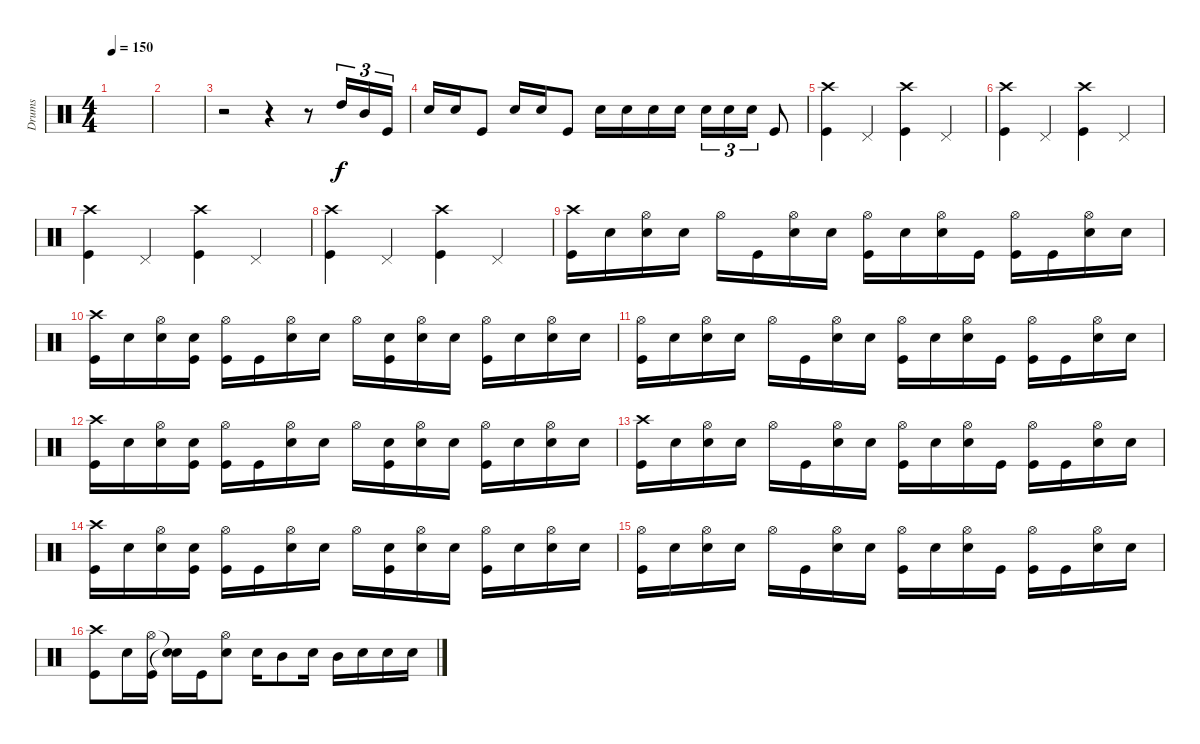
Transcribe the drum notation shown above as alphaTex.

\track ("Drums" "Drums") {instrument percussion}
\staff {score}
\articulation defaults
\ts (4 4)
\tempo 150
\clef neutral
\ks c
|
|
r.2 r.4 r.8 "High Tom (hit)".16{tu (3 2)} "Mid Tom (hit)".16{tu (3 2)} "Kick (hit)".16{tu (3 2)} |
"Snare (hit) 2".16 "Snare (hit) 2".16 "Kick (hit)".8 "Snare (hit) 2".16 "Snare (hit) 2".16 "Kick (hit)".8 "Snare (hit) 2".16 "Snare (hit) 2".16 "Snare (hit) 2".16 "Snare (hit) 2".16 "Snare (hit) 2".16{tu (3 2)} "Snare (hit) 2".16{tu (3 2)} "Snare (hit) 2".16{tu (3 2)} "Kick (hit)".8 |
("Crash high (hit)" "Kick (hit)").4 "Pedal Hi-Hat (hit)".4 ("Crash high (hit)" "Kick (hit)").4 "Pedal Hi-Hat (hit)".4 |
("Crash high (hit)" "Kick (hit)").4 "Pedal Hi-Hat (hit)".4 ("Crash high (hit)" "Kick (hit)").4 "Pedal Hi-Hat (hit)".4 |
("Crash high (hit)" "Kick (hit)").4 "Pedal Hi-Hat (hit)".4 ("Crash high (hit)" "Kick (hit)").4 "Pedal Hi-Hat (hit)".4 |
("Crash high (hit)" "Kick (hit)").4 "Pedal Hi-Hat (hit)".4 ("Crash high (hit)" "Kick (hit)").4 "Pedal Hi-Hat (hit)".4 |
("Crash high (hit)" "Kick (hit)").16 "Snare (hit)".16 ("Hi-Hat (open)" "Snare (hit) 2").16 "Snare (hit)".16 "Hi-Hat (open)".16 "Kick (hit)".16 ("Hi-Hat (open)" "Snare (hit) 2").16 "Snare (hit)".16 ("Hi-Hat (open)" "Kick (hit)").16 "Snare (hit)".16 ("Hi-Hat (open)" "Snare (hit) 2").16 "Kick (hit)".16 ("Hi-Hat (open)" "Kick (hit)").16 "Kick (hit)".16 ("Hi-Hat (open)" "Snare (hit) 2").16 "Snare (hit)".16 |
("Crash high (hit)" "Kick (hit)").16 "Snare (hit)".16 ("Hi-Hat (open)" "Snare (hit) 2").16 ("Snare (hit)" "Kick (hit)").16 ("Hi-Hat (open)" "Kick (hit)").16 "Kick (hit)".16 ("Hi-Hat (open)" "Snare (hit) 2").16 "Snare (hit)".16 "Hi-Hat (open)".16 ("Snare (hit)" "Kick (hit)").16 ("Hi-Hat (open)" "Snare (hit) 2").16 "Snare (hit)".16 ("Hi-Hat (open)" "Kick (hit)").16 "Snare (hit)".16 ("Hi-Hat (open)" "Snare (hit) 2").16 "Snare (hit)".16 |
("Hi-Hat (open)" "Kick (hit)").16 "Snare (hit)".16 ("Hi-Hat (open)" "Snare (hit) 2").16 "Snare (hit)".16 "Hi-Hat (open)".16 "Kick (hit)".16 ("Hi-Hat (open)" "Snare (hit) 2").16 "Snare (hit)".16 ("Hi-Hat (open)" "Kick (hit)").16 "Snare (hit)".16 ("Hi-Hat (open)" "Snare (hit) 2").16 "Kick (hit)".16 ("Hi-Hat (open)" "Kick (hit)").16 "Kick (hit)".16 ("Hi-Hat (open)" "Snare (hit) 2").16 "Snare (hit)".16 |
("Crash high (hit)" "Kick (hit)").16 "Snare (hit)".16 ("Hi-Hat (open)" "Snare (hit) 2").16 ("Snare (hit)" "Kick (hit)").16 ("Hi-Hat (open)" "Kick (hit)").16 "Kick (hit)".16 ("Hi-Hat (open)" "Snare (hit) 2").16 "Snare (hit)".16 "Hi-Hat (open)".16 ("Snare (hit)" "Kick (hit)").16 ("Hi-Hat (open)" "Snare (hit) 2").16 "Snare (hit)".16 ("Hi-Hat (open)" "Kick (hit)").16 "Snare (hit)".16 ("Hi-Hat (open)" "Snare (hit) 2").16 "Snare (hit)".16 |
("Crash high (hit)" "Kick (hit)").16 "Snare (hit)".16 ("Hi-Hat (open)" "Snare (hit) 2").16 "Snare (hit)".16 "Hi-Hat (open)".16 "Kick (hit)".16 ("Hi-Hat (open)" "Snare (hit) 2").16 "Snare (hit)".16 ("Hi-Hat (open)" "Kick (hit)").16 "Snare (hit)".16 ("Hi-Hat (open)" "Snare (hit) 2").16 "Kick (hit)".16 ("Hi-Hat (open)" "Kick (hit)").16 "Kick (hit)".16 ("Hi-Hat (open)" "Snare (hit) 2").16 "Snare (hit)".16 |
("Crash high (hit)" "Kick (hit)").16 "Snare (hit)".16 ("Hi-Hat (open)" "Snare (hit) 2").16 ("Snare (hit)" "Kick (hit)").16 ("Hi-Hat (open)" "Kick (hit)").16 "Kick (hit)".16 ("Hi-Hat (open)" "Snare (hit) 2").16 "Snare (hit)".16 "Hi-Hat (open)".16 ("Snare (hit)" "Kick (hit)").16 ("Hi-Hat (open)" "Snare (hit) 2").16 "Snare (hit)".16 ("Hi-Hat (open)" "Kick (hit)").16 "Snare (hit)".16 ("Hi-Hat (open)" "Snare (hit) 2").16 "Snare (hit)".16 |
("Hi-Hat (open)" "Kick (hit)").16 "Snare (hit)".16 ("Hi-Hat (open)" "Snare (hit) 2").16 "Snare (hit)".16 "Hi-Hat (open)".16 "Kick (hit)".16 ("Hi-Hat (open)" "Snare (hit) 2").16 "Snare (hit)".16 ("Hi-Hat (open)" "Kick (hit)").16 "Snare (hit)".16 ("Hi-Hat (open)" "Snare (hit) 2").16 "Kick (hit)".16 ("Hi-Hat (open)" "Kick (hit)").16 "Kick (hit)".16 ("Hi-Hat (open)" "Snare (hit) 2").16 "Snare (hit)".16 |
("Crash high (hit)" "Kick (hit)").8 "Snare (hit) 2".16 ("Hi-Hat (open)" "Kick (hit)").16 ("Snare (hit)"{t} "Snare (hit)"{t}).16 "Kick (hit)".16 ("Hi-Hat (open)" "Snare (hit) 2").8 "Snare (hit) 2".16 "Mid Tom (hit)".8 "Snare (hit) 2".16 "Mid Tom (hit)".16 "Snare (hit) 2".16 "Snare (hit) 2".16 "Snare (hit) 2".16
